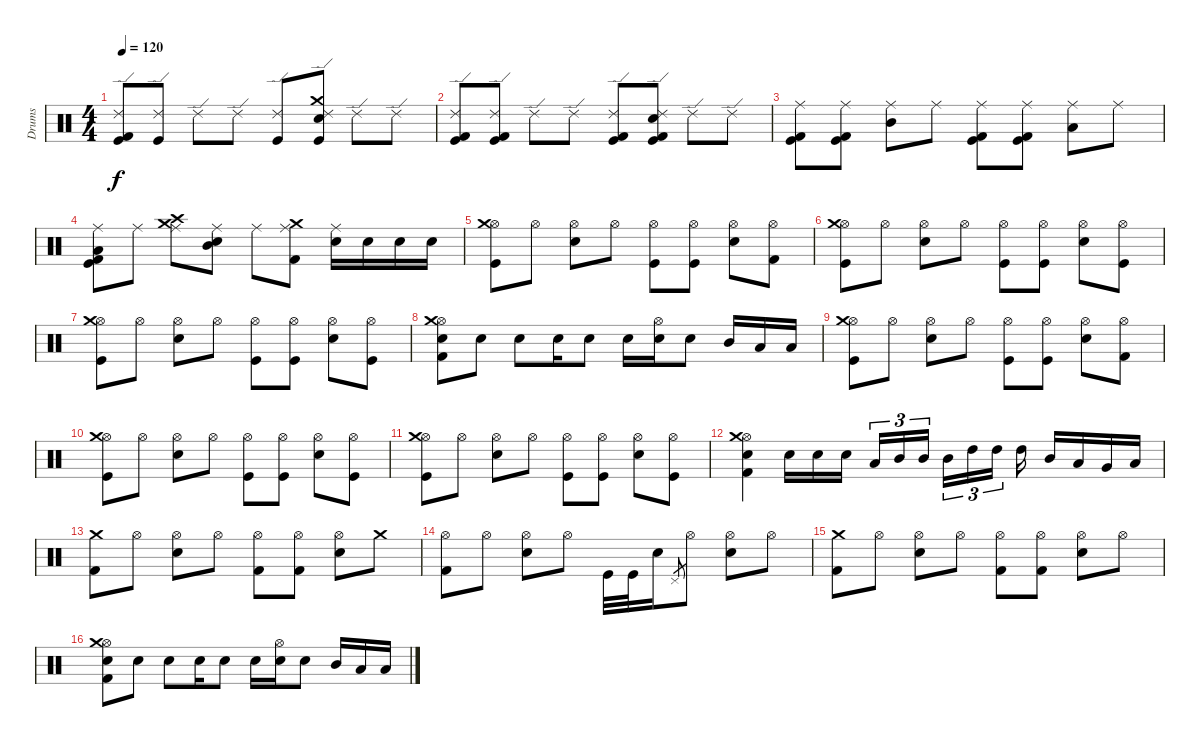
\track ("Drums" "Drums") {instrument percussion}
\staff {score}
\articulation defaults
\ts (4 4)
\tempo 120
\clef neutral
\ks c
("Ride (edge) 2" "Kick (hit) 2" "Kick (hit)").8{dy f} ("Ride (edge) 2" "Kick (hit)").8 "Ride (edge) 2".8 "Ride (edge) 2".8 ("Ride (edge) 2" "Kick (hit)").8 ("Ride (edge) 2" "Crash medium (hit)" "Snare (hit) 2" "Kick (hit)").8 "Ride (edge) 2".8 "Ride (edge) 2".8 |
("Ride (edge) 2" "Kick (hit) 2" "Kick (hit)").8 ("Ride (edge) 2" "Kick (hit) 2" "Kick (hit)").8 "Ride (edge) 2".8 "Ride (edge) 2".8 ("Ride (edge) 2" "Kick (hit) 2" "Kick (hit)").8 ("Ride (edge) 2" "Snare (hit) 2" "Kick (hit)" "Kick (hit) 2").8 "Ride (edge) 2".8 "Ride (edge) 2".8 |
("Ride (middle)" "Kick (hit) 2" "Kick (hit)").8 ("Ride (middle)" "Kick (hit) 2" "Kick (hit)").8 ("Ride (middle)" "Mid Tom (hit)").8 "Ride (middle)".8 ("Ride (middle)" "Kick (hit) 2" "Kick (hit)").8 ("Ride (middle)" "Kick (hit) 2" "Kick (hit)").8 ("Ride (middle)" "Low Tom (hit)").8 "Ride (middle)".8 |
("Ride (middle)" "Kick (hit) 2" "Kick (hit)" "Low Tom (hit)").8 "Ride (middle)".8 ("Ride (middle)" "Crash medium (hit)" "Crash high (hit)").8 ("Ride (middle)" "Snare (hit) 2" "Mid Tom (hit)").8 "Ride (middle)".8 ("Ride (middle)" "Kick (hit) 2" "Crash medium (hit)").8 ("Ride (middle)" "Snare (hit) 2").16 "Snare (hit) 2".16 "Snare (hit) 2".16 "Snare (hit) 2".16 |
("Hi-Hat (open)" "Kick (hit)" "Crash medium (hit)").8 "Hi-Hat (open)".8 ("Hi-Hat (open)" "Snare (hit) 2").8 "Hi-Hat (open)".8 ("Hi-Hat (open)" "Kick (hit)").8 ("Hi-Hat (open)" "Kick (hit)").8 ("Hi-Hat (open)" "Snare (hit) 2").8 ("Hi-Hat (open)" "Kick (hit) 2").8 |
("Hi-Hat (open)" "Kick (hit)" "Crash medium (hit)").8 "Hi-Hat (open)".8 ("Hi-Hat (open)" "Snare (hit) 2").8 "Hi-Hat (open)".8 ("Hi-Hat (open)" "Kick (hit)").8 ("Hi-Hat (open)" "Kick (hit)").8 ("Hi-Hat (open)" "Snare (hit) 2").8 ("Hi-Hat (open)" "Kick (hit)").8 |
("Hi-Hat (open)" "Kick (hit)" "Crash medium (hit)").8 "Hi-Hat (open)".8 ("Hi-Hat (open)" "Snare (hit) 2").8 "Hi-Hat (open)".8 ("Hi-Hat (open)" "Kick (hit)").8 ("Hi-Hat (open)" "Kick (hit)").8 ("Hi-Hat (open)" "Snare (hit) 2").8 ("Hi-Hat (open)" "Kick (hit)").8 |
("Hi-Hat (open)" "Snare (hit) 2" "Kick (hit) 2" "Crash medium (hit)").8 "Snare (hit) 2".8 "Snare (hit) 2".8 "Snare (hit) 2".16 "Snare (hit) 2".8 "Snare (hit) 2".16 ("Hi-Hat (open)" "Snare (hit) 2").16 "Snare (hit) 2".8 "Mid Tom (hit)".16 "Low Tom (hit)".16 "Low Floor Tom (hit)".16 |
("Hi-Hat (open)" "Kick (hit)" "Crash medium (hit)").8 "Hi-Hat (open)".8 ("Hi-Hat (open)" "Snare (hit) 2").8 "Hi-Hat (open)".8 ("Hi-Hat (open)" "Kick (hit)").8 ("Hi-Hat (open)" "Kick (hit)").8 ("Hi-Hat (open)" "Snare (hit) 2").8 ("Hi-Hat (open)" "Kick (hit) 2").8 |
("Hi-Hat (open)" "Kick (hit)" "Crash medium (hit)").8 "Hi-Hat (open)".8 ("Hi-Hat (open)" "Snare (hit) 2").8 "Hi-Hat (open)".8 ("Hi-Hat (open)" "Kick (hit)").8 ("Hi-Hat (open)" "Kick (hit)").8 ("Hi-Hat (open)" "Snare (hit) 2").8 ("Hi-Hat (open)" "Kick (hit)").8 |
("Hi-Hat (open)" "Kick (hit)" "Crash medium (hit)").8 "Hi-Hat (open)".8 ("Hi-Hat (open)" "Snare (hit) 2").8 "Hi-Hat (open)".8 ("Hi-Hat (open)" "Kick (hit)").8 ("Hi-Hat (open)" "Kick (hit)").8 ("Hi-Hat (open)" "Snare (hit) 2").8 ("Hi-Hat (open)" "Kick (hit)").8 |
("Hi-Hat (open)" "Snare (hit) 2" "Kick (hit) 2" "Crash medium (hit)").4 "Snare (hit) 2".16 "Snare (hit) 2".16 "Snare (hit) 2".16 "Low Tom (hit)".16{tu (3 2)} "Mid Tom (hit)".16{tu (3 2)} "Mid Tom (hit)".16{tu (3 2)} "Mid Tom (hit)".16{tu (3 2)} "High Tom (hit)".16{tu (3 2)} "High Tom (hit)".16{tu (3 2)} "High Tom (hit)".16 "Mid Tom (hit)".16 "Low Tom (hit)".16 "Very Low Tom (hit)".16 "Low Floor Tom (hit)".16 |
("Crash medium (hit)" "Kick (hit) 2").8 "Hi-Hat (open)".8 ("Hi-Hat (open)" "Snare (hit) 2").8 "Hi-Hat (open)".8 ("Hi-Hat (open)" "Kick (hit) 2").8 ("Hi-Hat (open)" "Kick (hit) 2").8 ("Hi-Hat (open)" "Snare (hit) 2").8 "Crash medium (hit)".8 |
("Hi-Hat (open)" "Kick (hit) 2").8 "Hi-Hat (open)".8 ("Hi-Hat (open)" "Snare (hit) 2").8 "Hi-Hat (open)".8 "Kick (hit)".32 "Kick (hit)".32 "Snare (hit) 2".16 "Pedal Hi-Hat (hit)".8{gr} "Hi-Hat (open)".8 ("Hi-Hat (open)" "Snare (hit) 2").8 "Hi-Hat (open)".8 |
("Crash medium (hit)" "Kick (hit) 2").8 "Hi-Hat (open)".8 ("Hi-Hat (open)" "Snare (hit) 2").8 "Hi-Hat (open)".8 ("Hi-Hat (open)" "Kick (hit) 2").8 ("Hi-Hat (open)" "Kick (hit) 2").8 ("Hi-Hat (open)" "Snare (hit) 2").8 "Hi-Hat (open)".8 |
("Hi-Hat (open)" "Snare (hit) 2" "Kick (hit) 2" "Crash medium (hit)").8 "Snare (hit) 2".8 "Snare (hit) 2".8 "Snare (hit) 2".16 "Snare (hit) 2".8 "Snare (hit) 2".16 ("Hi-Hat (open)" "Snare (hit) 2").16 "Snare (hit) 2".8 "Mid Tom (hit)".16 "Low Tom (hit)".16 "Low Floor Tom (hit)".16
